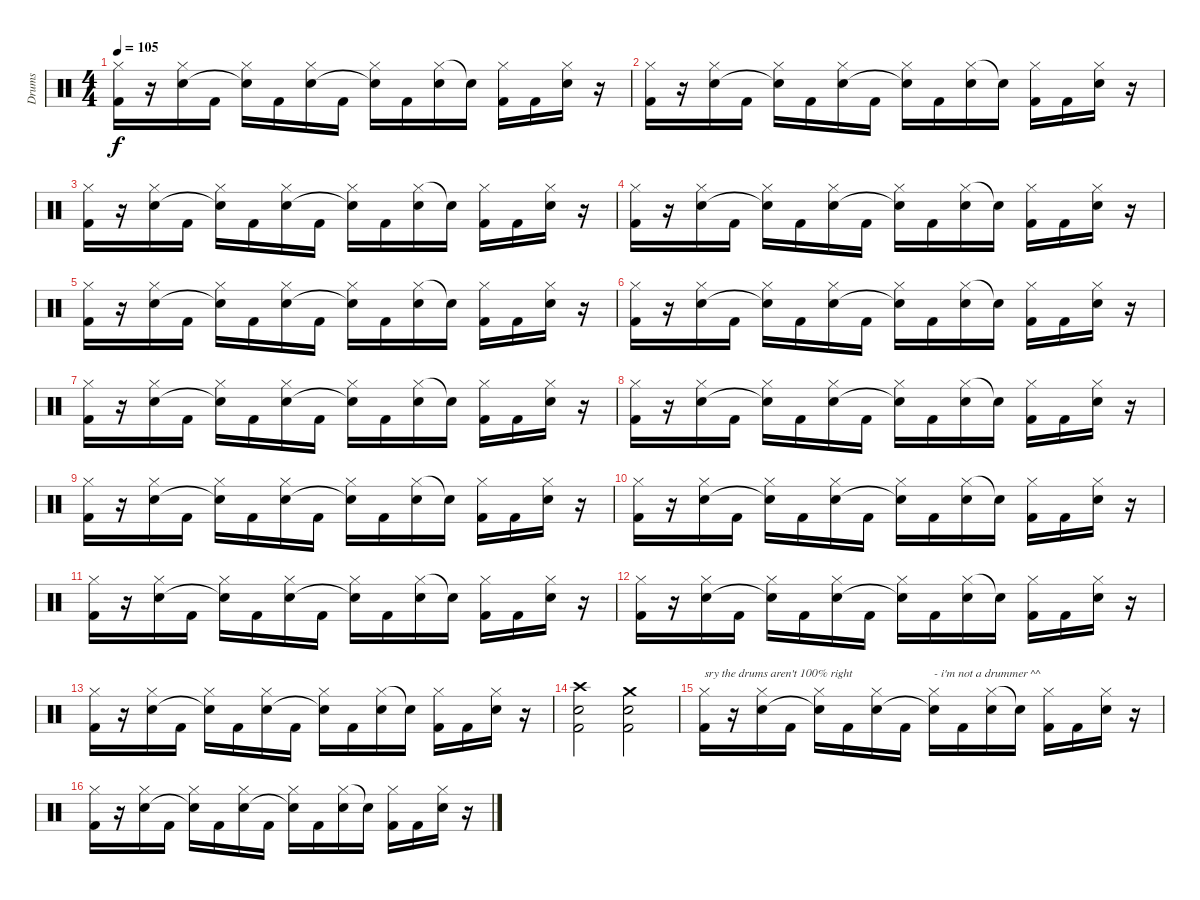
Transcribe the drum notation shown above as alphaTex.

\track ("Drums" "Drums") {instrument percussion}
\staff {score}
\articulation defaults
\ts (4 4)
\tempo 105
\clef neutral
\ks c
("Hi-Hat (closed)" "Kick (hit) 2").16{dy f} r.16 ("Hi-Hat (closed)" "Electric Snare (hit)").16 "Kick (hit) 2".16 ("Hi-Hat (closed)" "Snare (hit)"{t}).16 "Kick (hit) 2".16 ("Hi-Hat (closed)" "Electric Snare (hit)").16 "Kick (hit) 2".16 ("Hi-Hat (closed)" "Snare (hit)"{t}).16 "Kick (hit) 2".16 ("Hi-Hat (closed)" "Electric Snare (hit)").16 "Snare (hit)"{t}.16 ("Hi-Hat (closed)" "Kick (hit) 2").16 "Kick (hit) 2".16 ("Hi-Hat (closed)" "Electric Snare (hit)").16 r.16 |
("Hi-Hat (closed)" "Kick (hit) 2").16 r.16 ("Hi-Hat (closed)" "Electric Snare (hit)").16 "Kick (hit) 2".16 ("Hi-Hat (closed)" "Snare (hit)"{t}).16 "Kick (hit) 2".16 ("Hi-Hat (closed)" "Electric Snare (hit)").16 "Kick (hit) 2".16 ("Hi-Hat (closed)" "Snare (hit)"{t}).16 "Kick (hit) 2".16 ("Hi-Hat (closed)" "Electric Snare (hit)").16 "Snare (hit)"{t}.16 ("Hi-Hat (closed)" "Kick (hit) 2").16 "Kick (hit) 2".16 ("Hi-Hat (closed)" "Electric Snare (hit)").16 r.16 |
("Hi-Hat (closed)" "Kick (hit) 2").16 r.16 ("Hi-Hat (closed)" "Electric Snare (hit)").16 "Kick (hit) 2".16 ("Hi-Hat (closed)" "Snare (hit)"{t}).16 "Kick (hit) 2".16 ("Hi-Hat (closed)" "Electric Snare (hit)").16 "Kick (hit) 2".16 ("Hi-Hat (closed)" "Snare (hit)"{t}).16 "Kick (hit) 2".16 ("Hi-Hat (closed)" "Electric Snare (hit)").16 "Snare (hit)"{t}.16 ("Hi-Hat (closed)" "Kick (hit) 2").16 "Kick (hit) 2".16 ("Hi-Hat (closed)" "Electric Snare (hit)").16 r.16 |
("Hi-Hat (closed)" "Kick (hit) 2").16 r.16 ("Hi-Hat (closed)" "Electric Snare (hit)").16 "Kick (hit) 2".16 ("Hi-Hat (closed)" "Snare (hit)"{t}).16 "Kick (hit) 2".16 ("Hi-Hat (closed)" "Electric Snare (hit)").16 "Kick (hit) 2".16 ("Hi-Hat (closed)" "Snare (hit)"{t}).16 "Kick (hit) 2".16 ("Hi-Hat (closed)" "Electric Snare (hit)").16 "Snare (hit)"{t}.16 ("Hi-Hat (closed)" "Kick (hit) 2").16 "Kick (hit) 2".16 ("Hi-Hat (closed)" "Electric Snare (hit)").16 r.16 |
("Hi-Hat (closed)" "Kick (hit) 2").16 r.16 ("Hi-Hat (closed)" "Electric Snare (hit)").16 "Kick (hit) 2".16 ("Hi-Hat (closed)" "Snare (hit)"{t}).16 "Kick (hit) 2".16 ("Hi-Hat (closed)" "Electric Snare (hit)").16 "Kick (hit) 2".16 ("Hi-Hat (closed)" "Snare (hit)"{t}).16 "Kick (hit) 2".16 ("Hi-Hat (closed)" "Electric Snare (hit)").16 "Snare (hit)"{t}.16 ("Hi-Hat (closed)" "Kick (hit) 2").16 "Kick (hit) 2".16 ("Hi-Hat (closed)" "Electric Snare (hit)").16 r.16 |
("Hi-Hat (closed)" "Kick (hit) 2").16 r.16 ("Hi-Hat (closed)" "Electric Snare (hit)").16 "Kick (hit) 2".16 ("Hi-Hat (closed)" "Snare (hit)"{t}).16 "Kick (hit) 2".16 ("Hi-Hat (closed)" "Electric Snare (hit)").16 "Kick (hit) 2".16 ("Hi-Hat (closed)" "Snare (hit)"{t}).16 "Kick (hit) 2".16 ("Hi-Hat (closed)" "Electric Snare (hit)").16 "Snare (hit)"{t}.16 ("Hi-Hat (closed)" "Kick (hit) 2").16 "Kick (hit) 2".16 ("Hi-Hat (closed)" "Electric Snare (hit)").16 r.16 |
("Hi-Hat (closed)" "Kick (hit) 2").16 r.16 ("Hi-Hat (closed)" "Electric Snare (hit)").16 "Kick (hit) 2".16 ("Hi-Hat (closed)" "Snare (hit)"{t}).16 "Kick (hit) 2".16 ("Hi-Hat (closed)" "Electric Snare (hit)").16 "Kick (hit) 2".16 ("Hi-Hat (closed)" "Snare (hit)"{t}).16 "Kick (hit) 2".16 ("Hi-Hat (closed)" "Electric Snare (hit)").16 "Snare (hit)"{t}.16 ("Hi-Hat (closed)" "Kick (hit) 2").16 "Kick (hit) 2".16 ("Hi-Hat (closed)" "Electric Snare (hit)").16 r.16 |
("Hi-Hat (closed)" "Kick (hit) 2").16 r.16 ("Hi-Hat (closed)" "Electric Snare (hit)").16 "Kick (hit) 2".16 ("Hi-Hat (closed)" "Snare (hit)"{t}).16 "Kick (hit) 2".16 ("Hi-Hat (closed)" "Electric Snare (hit)").16 "Kick (hit) 2".16 ("Hi-Hat (closed)" "Snare (hit)"{t}).16 "Kick (hit) 2".16 ("Hi-Hat (closed)" "Electric Snare (hit)").16 "Snare (hit)"{t}.16 ("Hi-Hat (closed)" "Kick (hit) 2").16 "Kick (hit) 2".16 ("Hi-Hat (closed)" "Electric Snare (hit)").16 r.16 |
("Hi-Hat (closed)" "Kick (hit) 2").16 r.16 ("Hi-Hat (closed)" "Electric Snare (hit)").16 "Kick (hit) 2".16 ("Hi-Hat (closed)" "Snare (hit)"{t}).16 "Kick (hit) 2".16 ("Hi-Hat (closed)" "Electric Snare (hit)").16 "Kick (hit) 2".16 ("Hi-Hat (closed)" "Snare (hit)"{t}).16 "Kick (hit) 2".16 ("Hi-Hat (closed)" "Electric Snare (hit)").16 "Snare (hit)"{t}.16 ("Hi-Hat (closed)" "Kick (hit) 2").16 "Kick (hit) 2".16 ("Hi-Hat (closed)" "Electric Snare (hit)").16 r.16 |
("Hi-Hat (closed)" "Kick (hit) 2").16 r.16 ("Hi-Hat (closed)" "Electric Snare (hit)").16 "Kick (hit) 2".16 ("Hi-Hat (closed)" "Snare (hit)"{t}).16 "Kick (hit) 2".16 ("Hi-Hat (closed)" "Electric Snare (hit)").16 "Kick (hit) 2".16 ("Hi-Hat (closed)" "Snare (hit)"{t}).16 "Kick (hit) 2".16 ("Hi-Hat (closed)" "Electric Snare (hit)").16 "Snare (hit)"{t}.16 ("Hi-Hat (closed)" "Kick (hit) 2").16 "Kick (hit) 2".16 ("Hi-Hat (closed)" "Electric Snare (hit)").16 r.16 |
("Hi-Hat (closed)" "Kick (hit) 2").16 r.16 ("Hi-Hat (closed)" "Electric Snare (hit)").16 "Kick (hit) 2".16 ("Hi-Hat (closed)" "Snare (hit)"{t}).16 "Kick (hit) 2".16 ("Hi-Hat (closed)" "Electric Snare (hit)").16 "Kick (hit) 2".16 ("Hi-Hat (closed)" "Snare (hit)"{t}).16 "Kick (hit) 2".16 ("Hi-Hat (closed)" "Electric Snare (hit)").16 "Snare (hit)"{t}.16 ("Hi-Hat (closed)" "Kick (hit) 2").16 "Kick (hit) 2".16 ("Hi-Hat (closed)" "Electric Snare (hit)").16 r.16 |
("Hi-Hat (closed)" "Kick (hit) 2").16 r.16 ("Hi-Hat (closed)" "Electric Snare (hit)").16 "Kick (hit) 2".16 ("Hi-Hat (closed)" "Snare (hit)"{t}).16 "Kick (hit) 2".16 ("Hi-Hat (closed)" "Electric Snare (hit)").16 "Kick (hit) 2".16 ("Hi-Hat (closed)" "Snare (hit)"{t}).16 "Kick (hit) 2".16 ("Hi-Hat (closed)" "Electric Snare (hit)").16 "Snare (hit)"{t}.16 ("Hi-Hat (closed)" "Kick (hit) 2").16 "Kick (hit) 2".16 ("Hi-Hat (closed)" "Electric Snare (hit)").16 r.16 |
("Hi-Hat (closed)" "Kick (hit) 2").16 r.16 ("Hi-Hat (closed)" "Electric Snare (hit)").16 "Kick (hit) 2".16 ("Hi-Hat (closed)" "Snare (hit)"{t}).16 "Kick (hit) 2".16 ("Hi-Hat (closed)" "Electric Snare (hit)").16 "Kick (hit) 2".16 ("Hi-Hat (closed)" "Snare (hit)"{t}).16 "Kick (hit) 2".16 ("Hi-Hat (closed)" "Electric Snare (hit)").16 "Snare (hit)"{t}.16 ("Hi-Hat (closed)" "Kick (hit) 2").16 "Kick (hit) 2".16 ("Hi-Hat (closed)" "Electric Snare (hit)").16 r.16 |
("Crash high (hit)" "Electric Snare (hit)" "Kick (hit) 2").2 ("Crash medium (hit)" "Electric Snare (hit)" "Kick (hit) 2").2 |
("Hi-Hat (closed)" "Kick (hit) 2").16{txt "sry the drums aren't 100% right"} r.16 ("Hi-Hat (closed)" "Electric Snare (hit)").16 "Kick (hit) 2".16 ("Hi-Hat (closed)" "Snare (hit)"{t}).16 "Kick (hit) 2".16 ("Hi-Hat (closed)" "Electric Snare (hit)").16 "Kick (hit) 2".16 ("Hi-Hat (closed)" "Snare (hit)"{t}).16{txt "- i'm not a drummer ^^"} "Kick (hit) 2".16 ("Hi-Hat (closed)" "Electric Snare (hit)").16 "Snare (hit)"{t}.16 ("Hi-Hat (closed)" "Kick (hit) 2").16 "Kick (hit) 2".16 ("Hi-Hat (closed)" "Electric Snare (hit)").16 r.16 |
("Hi-Hat (closed)" "Kick (hit) 2").16 r.16 ("Hi-Hat (closed)" "Electric Snare (hit)").16 "Kick (hit) 2".16 ("Hi-Hat (closed)" "Snare (hit)"{t}).16 "Kick (hit) 2".16 ("Hi-Hat (closed)" "Electric Snare (hit)").16 "Kick (hit) 2".16 ("Hi-Hat (closed)" "Snare (hit)"{t}).16 "Kick (hit) 2".16 ("Hi-Hat (closed)" "Electric Snare (hit)").16 "Snare (hit)"{t}.16 ("Hi-Hat (closed)" "Kick (hit) 2").16 "Kick (hit) 2".16 ("Hi-Hat (closed)" "Electric Snare (hit)").16 r.16
